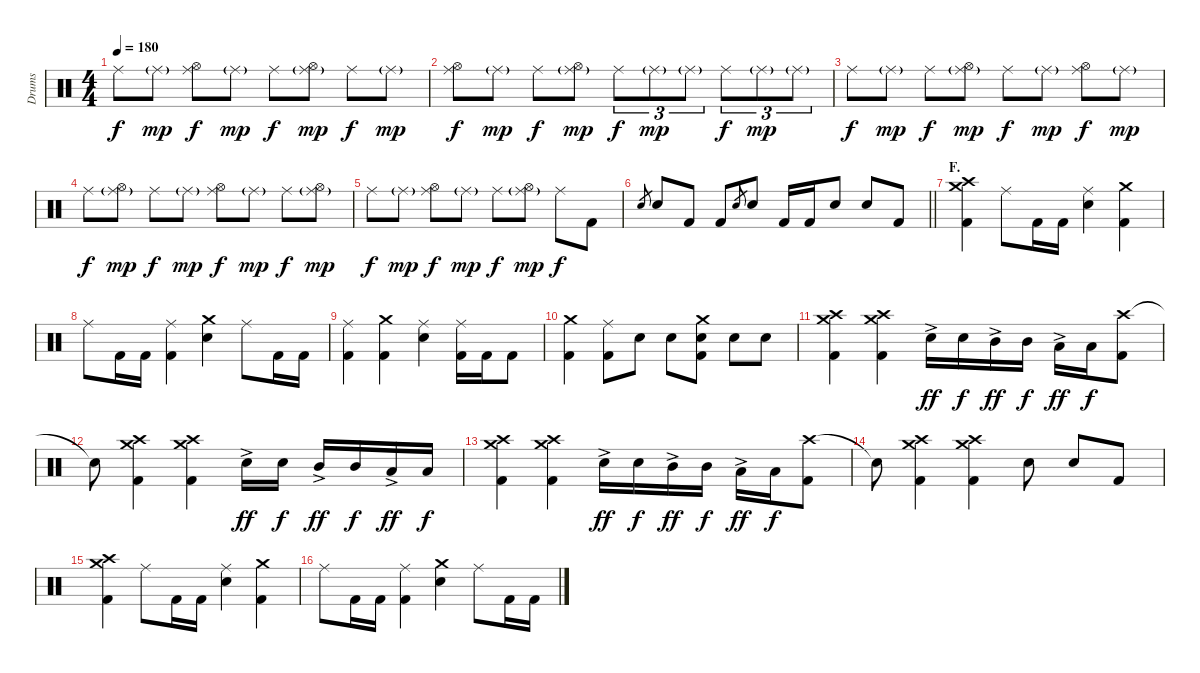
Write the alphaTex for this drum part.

\track ("Drums" "Drums") {instrument percussion}
\staff {score}
\articulation defaults
\ts (4 4)
\tempo 180
\clef neutral
\ks c "Ride (middle)".8{dy f} "Ride (middle)"{g}.8{dy mp}
("Ride (middle)" "Hi-Hat (open)").8{dy f} "Ride (middle)"{g}.8{dy mp} "Ride (middle)".8{dy f} ("Ride (middle)"{g} "Hi-Hat (open)").8{dy mp} "Ride (middle)".8{dy f} "Ride (middle)"{g}.8{dy mp} |
("Ride (middle)" "Hi-Hat (open)").8{dy f} "Ride (middle)"{g}.8{dy mp} "Ride (middle)".8{dy f} ("Ride (middle)"{g} "Hi-Hat (open)").8{dy mp} "Ride (middle)".8{tu (3 2) dy f} "Ride (middle)"{g}.8{tu (3 2) dy mp} "Ride (middle)"{g}.8{tu (3 2)} "Ride (middle)".8{tu (3 2) dy f} "Ride (middle)"{g}.8{tu (3 2) dy mp} "Ride (middle)"{g}.8{tu (3 2)} |
"Ride (middle)".8{dy f} "Ride (middle)"{g}.8{dy mp} "Ride (middle)".8{dy f} ("Ride (middle)"{g} "Hi-Hat (open)").8{dy mp} "Ride (middle)".8{dy f} "Ride (middle)"{g}.8{dy mp} ("Ride (middle)" "Hi-Hat (open)").8{dy f} "Ride (middle)"{g}.8{dy mp} |
"Ride (middle)".8{dy f} ("Ride (middle)"{g} "Hi-Hat (open)").8{dy mp} "Ride (middle)".8{dy f} "Ride (middle)"{g}.8{dy mp} ("Ride (middle)" "Hi-Hat (open)").8{dy f} "Ride (middle)"{g}.8{dy mp} "Ride (middle)".8{dy f} ("Ride (middle)"{g} "Hi-Hat (open)").8{dy mp} |
"Ride (middle)".8{dy f} "Ride (middle)"{g}.8{dy mp} ("Ride (middle)" "Hi-Hat (open)").8{dy f} "Ride (middle)"{g}.8{dy mp} "Ride (middle)".8{dy f} ("Ride (middle)"{g} "Hi-Hat (open)").8{dy mp} "Ride (middle)".8{dy f} "Kick (hit) 2".8 |
\barLineRight lightlight "Electric Snare (hit)".8{gr} "Electric Snare (hit)".8 "Kick (hit) 2".8 "Kick (hit) 2".8 "Electric Snare (hit)".8{gr} "Electric Snare (hit)".8 "Kick (hit) 2".16 "Kick (hit) 2".16 "Electric Snare (hit)".8 "Electric Snare (hit)".8 "Kick (hit) 2".8
|
\section ("" "F.")
("Crash medium (hit)" "Crash high (hit)" "Kick (hit) 2").4 "Ride (middle)".8 "Kick (hit) 2".16 "Kick (hit) 2".16 ("Ride (middle)" "Electric Snare (hit)").4 ("Crash medium (hit)" "Kick (hit) 2").4 |
"Ride (middle)".8 "Kick (hit) 2".16 "Kick (hit) 2".16 ("Ride (middle)" "Kick (hit) 2").4 ("Crash medium (hit)" "Electric Snare (hit)").4 "Ride (middle)".8 "Kick (hit) 2".16 "Kick (hit) 2".16 |
("Ride (middle)" "Kick (hit) 2").4 ("Crash medium (hit)" "Kick (hit) 2").4 ("Ride (middle)" "Electric Snare (hit)").4 ("Ride (middle)" "Kick (hit) 2").16 "Kick (hit) 2".16 "Kick (hit) 2".8 |
("Crash medium (hit)" "Kick (hit) 2").4 ("Ride (middle)" "Kick (hit) 2").8 "Electric Snare (hit)".8 "Electric Snare (hit)".8 ("Crash medium (hit)" "Electric Snare (hit)" "Kick (hit) 2").8 "Electric Snare (hit)".8 "Electric Snare (hit)".8 |
("Crash medium (hit)" "Crash high (hit)" "Kick (hit) 2").4 ("Crash medium (hit)" "Crash high (hit)" "Kick (hit) 2").4 "Electric Snare (hit)"{ac}.16{dy ff} "Electric Snare (hit)".16{dy f} "Mid Tom (hit)"{ac}.16{dy ff} "Mid Tom (hit)".16{dy f} "Low Tom (hit)"{ac}.16{dy ff} "Low Tom (hit)".16{dy f} ("Crash high (hit)" "Kick (hit) 2").8 |
"Snare (hit)"{t}.8 ("Crash medium (hit)" "Crash high (hit)" "Kick (hit) 2").4 ("Crash medium (hit)" "Crash high (hit)" "Kick (hit) 2").4 "Electric Snare (hit)"{ac}.16{dy ff} "Electric Snare (hit)".16{dy f} "Mid Tom (hit)"{ac}.16{dy ff} "Mid Tom (hit)".16{dy f} "Low Tom (hit)"{ac}.16{dy ff} "Low Tom (hit)".16{dy f} |
("Crash medium (hit)" "Crash high (hit)" "Kick (hit) 2").4 ("Crash medium (hit)" "Crash high (hit)" "Kick (hit) 2").4 "Electric Snare (hit)"{ac}.16{dy ff} "Electric Snare (hit)".16{dy f} "Mid Tom (hit)"{ac}.16{dy ff} "Mid Tom (hit)".16{dy f} "Low Tom (hit)"{ac}.16{dy ff} "Low Tom (hit)".16{dy f} ("Crash high (hit)" "Kick (hit) 2").8 |
"Snare (hit)"{t}.8 ("Crash medium (hit)" "Crash high (hit)" "Kick (hit) 2").4 ("Crash medium (hit)" "Crash high (hit)" "Kick (hit) 2").4 "Electric Snare (hit)".8 "Electric Snare (hit)".8 "Kick (hit) 2".8 |
("Crash medium (hit)" "Crash high (hit)" "Kick (hit) 2").4 "Ride (middle)".8 "Kick (hit) 2".16 "Kick (hit) 2".16 ("Ride (middle)" "Electric Snare (hit)").4 ("Crash medium (hit)" "Kick (hit) 2").4 |
"Ride (middle)".8 "Kick (hit) 2".16 "Kick (hit) 2".16 ("Ride (middle)" "Kick (hit) 2").4 ("Crash medium (hit)" "Electric Snare (hit)").4 "Ride (middle)".8 "Kick (hit) 2".16 "Kick (hit) 2".16
